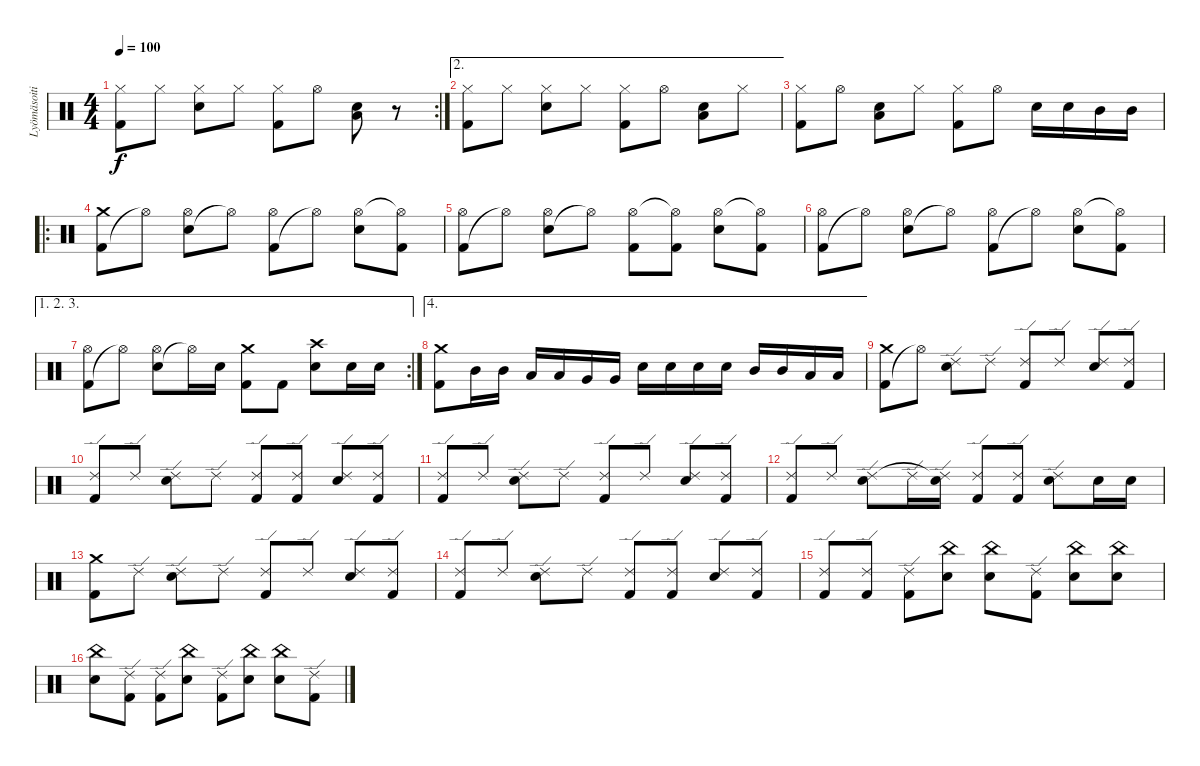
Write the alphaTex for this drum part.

\track ("Lyömäsoitin" "Lyömäsoiti") {instrument percussion}
\staff {score}
\articulation defaults
\rc 2
\ts (4 4)
\tempo 100
\clef neutral
\ks c
("Kick (hit) 2" "Hi-Hat (closed)").8{dy f} "Hi-Hat (closed)".8 ("Electric Snare (hit)" "Hi-Hat (closed)").8 "Hi-Hat (closed)".8 ("Kick (hit) 2" "Hi-Hat (closed)").8 "Hi-Hat (open)".8 ("Electric Snare (hit)" "Low Tom (hit)").8 r.8 |
\ae 2
("Kick (hit) 2" "Hi-Hat (closed)").8 "Hi-Hat (closed)".8 ("Electric Snare (hit)" "Hi-Hat (closed)").8 "Hi-Hat (closed)".8 ("Kick (hit) 2" "Hi-Hat (closed)").8 "Hi-Hat (open)".8 ("Electric Snare (hit)" "Low Tom (hit)").8 "Hi-Hat (closed)".8 |
("Kick (hit) 2" "Hi-Hat (closed)").8 "Hi-Hat (open)".8 ("Electric Snare (hit)" "Low Tom (hit)").8 "Hi-Hat (closed)".8 ("Kick (hit) 2" "Hi-Hat (closed)").8 "Hi-Hat (open)".8 "Electric Snare (hit)".16 "Electric Snare (hit)".16 "Mid Tom (hit)".16 "Mid Tom (hit)".16 |
\ro
("Kick (hit) 2" "Crash medium (hit)").8 "Hi-Hat (open)"{t}.8 ("Electric Snare (hit)" "Hi-Hat (open)").8 "Hi-Hat (open)"{t}.8 ("Kick (hit) 2" "Hi-Hat (open)").8 "Hi-Hat (open)"{t}.8 ("Electric Snare (hit)" "Hi-Hat (open)").8 ("Kick (hit) 2" "Hi-Hat (open)"{t}).8 |
("Kick (hit) 2" "Hi-Hat (open)").8 "Hi-Hat (open)"{t}.8 ("Electric Snare (hit)" "Hi-Hat (open)").8 "Hi-Hat (open)"{t}.8 ("Kick (hit) 2" "Hi-Hat (open)").8 ("Kick (hit) 2" "Hi-Hat (open)"{t}).8 ("Electric Snare (hit)" "Hi-Hat (open)").8 ("Kick (hit) 2" "Hi-Hat (open)"{t}).8 |
("Kick (hit) 2" "Hi-Hat (open)").8 "Hi-Hat (open)"{t}.8 ("Electric Snare (hit)" "Hi-Hat (open)").8 "Hi-Hat (open)"{t}.8 ("Kick (hit) 2" "Hi-Hat (open)").8 "Hi-Hat (open)"{t}.8 ("Electric Snare (hit)" "Hi-Hat (open)").8 ("Kick (hit) 2" "Hi-Hat (open)"{t}).8 |
\ae (1 2 3)
\rc 2
("Kick (hit) 2" "Hi-Hat (open)").8 "Hi-Hat (open)"{t}.8 ("Electric Snare (hit)" "Hi-Hat (open)").8 "Hi-Hat (open)"{t}.16 "Electric Snare (hit)".16 ("Kick (hit) 2" "Crash medium (hit)").8 "Kick (hit) 2".8 ("Electric Snare (hit)" "Crash high (hit)").8 "Electric Snare (hit)".16 "Electric Snare (hit)".16 |
\ae 4
("Crash medium (hit)" "Kick (hit) 2").8 "Mid Tom (hit)".16 "Mid Tom (hit)".16 "Low Tom (hit)".16 "Low Tom (hit)".16 "Very Low Tom (hit)".16 "Very Low Tom (hit)".16 "Electric Snare (hit)".16 "Electric Snare (hit)".16 "Electric Snare (hit)".16 "Electric Snare (hit)".16 "Mid Tom (hit)".16 "Mid Tom (hit)".16 "Low Tom (hit)".16 "Low Tom (hit)".16 |
("Kick (hit) 2" "Crash medium (hit)").8 "Hi-Hat (open)"{t}.8 ("Electric Snare (hit)" "Ride (edge) 2").8 "Ride (edge) 2".8 ("Kick (hit) 2" "Ride (edge) 2").8 "Ride (edge) 2".8 ("Electric Snare (hit)" "Ride (edge) 2").8 ("Kick (hit) 2" "Ride (edge) 2").8 |
("Kick (hit) 2" "Ride (edge) 2").8 "Ride (edge) 2".8 ("Electric Snare (hit)" "Ride (edge) 2").8 "Ride (edge) 2".8 ("Kick (hit) 2" "Ride (edge) 2").8 ("Kick (hit) 2" "Ride (edge) 2").8 ("Electric Snare (hit)" "Ride (edge) 2").8 ("Kick (hit) 2" "Ride (edge) 2").8 |
("Kick (hit) 2" "Ride (edge) 2").8 "Ride (edge) 2".8 ("Electric Snare (hit)" "Ride (edge) 2").8 "Ride (edge) 2".8 ("Kick (hit) 2" "Ride (edge) 2").8 "Ride (edge) 2".8 ("Electric Snare (hit)" "Ride (edge) 2").8 ("Kick (hit) 2" "Ride (edge) 2").8 |
("Kick (hit) 2" "Ride (edge) 2").8 "Ride (edge) 2".8 ("Electric Snare (hit)" "Ride (edge) 2").8 "Ride (edge) 2".16 ("Electric Snare (hit)" "Ride (edge) 2"{t}).16 ("Kick (hit) 2" "Ride (edge) 2").8 ("Kick (hit) 2" "Ride (edge) 2").8 ("Electric Snare (hit)" "Ride (edge) 2").8 "Electric Snare (hit)".16 "Electric Snare (hit)".16 |
("Kick (hit) 2" "Crash medium (hit)").8 "Ride (edge) 2".8 ("Electric Snare (hit)" "Ride (edge) 2").8 "Ride (edge) 2".8 ("Kick (hit) 2" "Ride (edge) 2").8 "Ride (edge) 2".8 ("Electric Snare (hit)" "Ride (edge) 2").8 ("Kick (hit) 2" "Ride (edge) 2").8 |
("Kick (hit) 2" "Ride (edge) 2").8 "Ride (edge) 2".8 ("Electric Snare (hit)" "Ride (edge) 2").8 "Ride (edge) 2".8 ("Kick (hit) 2" "Ride (edge) 2").8 ("Kick (hit) 2" "Ride (edge) 2").8 ("Electric Snare (hit)" "Ride (edge) 2").8 ("Kick (hit) 2" "Ride (edge) 2").8 |
("Kick (hit) 2" "Ride (edge) 2").8 ("Kick (hit) 2" "Ride (edge) 2").8 ("Kick (hit) 2" "Ride (edge) 2").8 ("Electric Snare (hit)" "China (hit)").8 ("Electric Snare (hit)" "China (hit)").8 ("Kick (hit) 2" "Ride (edge) 2").8 ("Electric Snare (hit)" "China (hit)").8 ("Electric Snare (hit)" "China (hit)").8 |
("Electric Snare (hit)" "China (hit)").8 ("Kick (hit) 2" "Ride (edge) 2").8 ("Kick (hit) 2" "Ride (edge) 2").8 ("Electric Snare (hit)" "China (hit)").8 ("Kick (hit) 2" "Ride (edge) 2").8 ("Electric Snare (hit)" "China (hit)").8 ("Electric Snare (hit)" "China (hit)").8 ("Kick (hit) 2" "Ride (edge) 2").8
